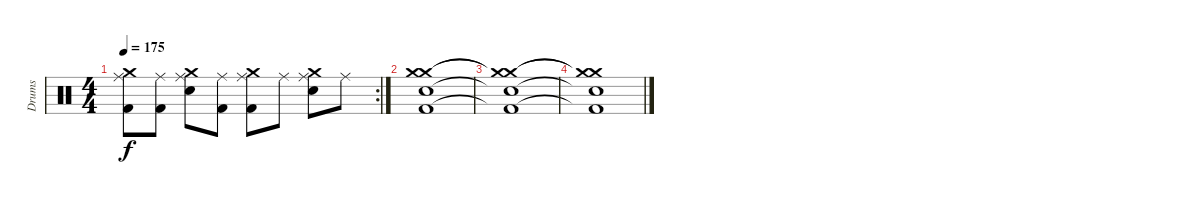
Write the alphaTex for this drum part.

\track ("Drums" "Drums") {instrument percussion}
\staff {score}
\articulation defaults
\rc 2
\ts (4 4)
\tempo 175
\clef neutral
\ks c
("Crash medium (hit)" "Ride (middle)" "Kick (hit) 2").8{dy f} ("Ride (middle)" "Kick (hit) 2").8 ("Crash medium (hit)" "Ride (middle)" "Snare (hit) 2").8 ("Ride (middle)" "Kick (hit) 2").8 ("Crash medium (hit)" "Ride (middle)" "Kick (hit) 2").8 "Ride (middle)".8 ("Crash medium (hit)" "Ride (middle)" "Snare (hit) 2").8 "Ride (middle)".8 |
("Crash medium (hit)" "Crash medium (hit)" "Snare (hit) 2" "Kick (hit) 2").1 |
("Crash medium (hit)"{t} "Crash medium (hit)"{t} "Snare (hit) 2"{t} "Kick (hit) 2"{t}).1 |
("Crash medium (hit)"{t} "Crash medium (hit)"{t} "Snare (hit) 2"{t} "Kick (hit) 2"{t}).1
